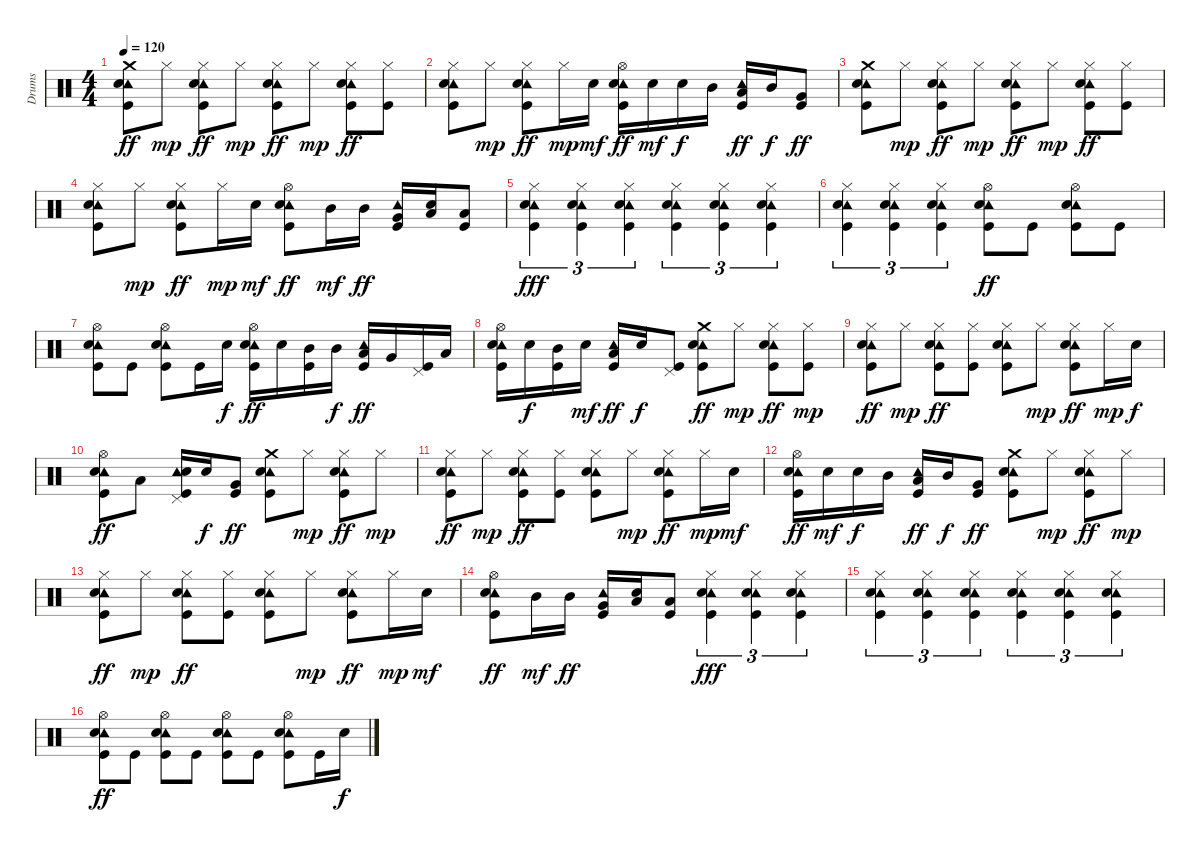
\track ("Drums" "Drums") {instrument percussion}
\staff {score}
\articulation defaults
\ts (4 4)
\tempo 120
\clef neutral
\ks c
("Crash medium (hit)" "Tambourine (hit)" "Snare (hit) 2" "Kick (hit)").8{dy ff} "Hi-Hat (closed)".8{dy mp} ("Hi-Hat (closed)" "Tambourine (hit)" "Snare (hit) 2" "Kick (hit)").8{dy ff} "Hi-Hat (closed)".8{dy mp} ("Hi-Hat (closed)" "Tambourine (hit)" "Snare (hit) 2" "Kick (hit)").8{dy ff} "Hi-Hat (closed)".8{dy mp} ("Hi-Hat (closed)" "Tambourine (hit)" "Snare (hit) 2" "Kick (hit)").8{dy ff} ("Hi-Hat (closed)" "Kick (hit)").8 |
("Hi-Hat (closed)" "Tambourine (hit)" "Snare (hit) 2" "Kick (hit)").8 "Hi-Hat (closed)".8{dy mp} ("Hi-Hat (closed)" "Tambourine (hit)" "Snare (hit) 2" "Kick (hit)").8{dy ff} "Hi-Hat (closed)".16{dy mp} "Snare (hit) 2".16{dy mf} ("Hi-Hat (open)" "Tambourine (hit)" "Snare (hit) 2" "Kick (hit)").16{dy ff} "Snare (hit) 2".16{dy mf} "Snare (hit) 2".16{dy f} "Mid Tom (hit)".16 ("Tambourine (hit)" "Low Tom (hit)" "Kick (hit)").16{dy ff} "Mid Tom (hit)".16{dy f} ("Very Low Tom (hit)" "Kick (hit)").8{dy ff} |
("Crash medium (hit)" "Tambourine (hit)" "Snare (hit) 2" "Kick (hit)").8 "Hi-Hat (closed)".8{dy mp} ("Hi-Hat (closed)" "Tambourine (hit)" "Snare (hit) 2" "Kick (hit)").8{dy ff} "Hi-Hat (closed)".8{dy mp} ("Hi-Hat (closed)" "Tambourine (hit)" "Snare (hit) 2" "Kick (hit)").8{dy ff} "Hi-Hat (closed)".8{dy mp} ("Hi-Hat (closed)" "Tambourine (hit)" "Snare (hit) 2" "Kick (hit)").8{dy ff} ("Hi-Hat (closed)" "Kick (hit)").8 |
("Hi-Hat (closed)" "Tambourine (hit)" "Snare (hit) 2" "Kick (hit)").8 "Hi-Hat (closed)".8{dy mp} ("Hi-Hat (closed)" "Tambourine (hit)" "Snare (hit) 2" "Kick (hit)").8{dy ff} "Hi-Hat (closed)".16{dy mp} "Snare (hit) 2".16{dy mf} ("Hi-Hat (open)" "Tambourine (hit)" "Snare (hit) 2" "Kick (hit)").8{dy ff} "Mid Tom (hit)".16{dy mf} "Mid Tom (hit)".16{dy ff} ("Tambourine (hit)" "Very Low Tom (hit)" "Kick (hit)").16 ("Low Tom (hit)" "Snare (hit) 2").16 ("Low Floor Tom (hit)" "Kick (hit)").8 |
("Hi-Hat (closed)" "Tambourine (hit)" "Snare (hit) 2" "Kick (hit)").4{tu (3 2) dy fff} ("Hi-Hat (closed)" "Tambourine (hit)" "Snare (hit) 2" "Kick (hit)").4{tu (3 2)} ("Hi-Hat (closed)" "Tambourine (hit)" "Snare (hit) 2" "Kick (hit)").4{tu (3 2)} ("Hi-Hat (closed)" "Tambourine (hit)" "Snare (hit) 2" "Kick (hit)").4{tu (3 2)} ("Hi-Hat (closed)" "Tambourine (hit)" "Snare (hit) 2" "Kick (hit)").4{tu (3 2)} ("Hi-Hat (closed)" "Tambourine (hit)" "Snare (hit) 2" "Kick (hit)").4{tu (3 2)} |
("Hi-Hat (closed)" "Tambourine (hit)" "Snare (hit) 2" "Kick (hit)").4{tu (3 2)} ("Hi-Hat (closed)" "Tambourine (hit)" "Snare (hit) 2" "Kick (hit)").4{tu (3 2)} ("Hi-Hat (closed)" "Tambourine (hit)" "Snare (hit) 2" "Kick (hit)").4{tu (3 2)} ("Hi-Hat (open)" "Tambourine (hit)" "Snare (hit) 2" "Kick (hit)").8{dy ff} "Kick (hit)".8 ("Hi-Hat (open)" "Tambourine (hit)" "Snare (hit) 2" "Kick (hit)").8 "Kick (hit)".8 |
("Hi-Hat (open)" "Tambourine (hit)" "Snare (hit) 2" "Kick (hit)").8 "Kick (hit)".8 ("Hi-Hat (open)" "Tambourine (hit)" "Snare (hit) 2" "Kick (hit)").8 "Kick (hit)".16 "Snare (hit) 2".16{dy f} ("Hi-Hat (open)" "Tambourine (hit)" "Snare (hit) 2" "Kick (hit)").16{dy ff} "Snare (hit) 2".16 ("Mid Tom (hit)" "Kick (hit)").16 "Mid Tom (hit)".16{dy f} ("Tambourine (hit)" "Low Tom (hit)" "Kick (hit)").16{dy ff} "Very Low Tom (hit)".16 ("Pedal Hi-Hat (hit)" "Kick (hit)").16 "Low Floor Tom (hit)".16 |
("Hi-Hat (open)" "Tambourine (hit)" "Snare (hit) 2" "Kick (hit)").16 "Snare (hit) 2".16{dy f} ("Mid Tom (hit)" "Kick (hit)").16 "Snare (hit) 2".16{dy mf} ("Tambourine (hit)" "Low Tom (hit)" "Kick (hit)").16{dy ff} "Snare (hit) 2".16{dy f} ("Pedal Hi-Hat (hit)" "Kick (hit)").8 ("Crash medium (hit)" "Tambourine (hit)" "Snare (hit) 2" "Kick (hit)").8{dy ff} "Hi-Hat (closed)".8{dy mp} ("Hi-Hat (closed)" "Tambourine (hit)" "Snare (hit) 2" "Kick (hit)").8{dy ff} ("Hi-Hat (closed)" "Kick (hit)").8{dy mp} |
("Hi-Hat (closed)" "Tambourine (hit)" "Snare (hit) 2" "Kick (hit)").8{dy ff} "Hi-Hat (closed)".8{dy mp} ("Hi-Hat (closed)" "Tambourine (hit)" "Snare (hit) 2" "Kick (hit)").8{dy ff} ("Hi-Hat (closed)" "Kick (hit)").8 ("Hi-Hat (closed)" "Tambourine (hit)" "Snare (hit) 2" "Kick (hit)").8 "Hi-Hat (closed)".8{dy mp} ("Hi-Hat (closed)" "Tambourine (hit)" "Snare (hit) 2" "Kick (hit)").8{dy ff} "Hi-Hat (closed)".16{dy mp} "Snare (hit) 2".16{dy f} |
("Hi-Hat (open)" "Tambourine (hit)" "Snare (hit) 2" "Kick (hit)").8{dy ff} "Low Tom (hit)".8 ("Pedal Hi-Hat (hit)" "Tambourine (hit)" "Snare (hit) 2" "Kick (hit)").16 "Snare (hit) 2".16{dy f} ("Very Low Tom (hit)" "Kick (hit)").8{dy ff} ("Crash medium (hit)" "Tambourine (hit)" "Snare (hit) 2" "Kick (hit)").8 "Hi-Hat (closed)".8{dy mp} ("Hi-Hat (closed)" "Tambourine (hit)" "Snare (hit) 2" "Kick (hit)").8{dy ff} "Hi-Hat (closed)".8{dy mp} |
("Hi-Hat (closed)" "Tambourine (hit)" "Snare (hit) 2" "Kick (hit)").8{dy ff} "Hi-Hat (closed)".8{dy mp} ("Hi-Hat (closed)" "Tambourine (hit)" "Snare (hit) 2" "Kick (hit)").8{dy ff} ("Hi-Hat (closed)" "Kick (hit)").8 ("Hi-Hat (closed)" "Tambourine (hit)" "Snare (hit) 2" "Kick (hit)").8 "Hi-Hat (closed)".8{dy mp} ("Hi-Hat (closed)" "Tambourine (hit)" "Snare (hit) 2" "Kick (hit)").8{dy ff} "Hi-Hat (closed)".16{dy mp} "Snare (hit) 2".16{dy mf} |
("Hi-Hat (open)" "Tambourine (hit)" "Snare (hit) 2" "Kick (hit)").16{dy ff} "Snare (hit) 2".16{dy mf} "Snare (hit) 2".16{dy f} "Mid Tom (hit)".16 ("Tambourine (hit)" "Low Tom (hit)" "Kick (hit)").16{dy ff} "Mid Tom (hit)".16{dy f} ("Very Low Tom (hit)" "Kick (hit)").8{dy ff} ("Crash medium (hit)" "Tambourine (hit)" "Snare (hit) 2" "Kick (hit)").8 "Hi-Hat (closed)".8{dy mp} ("Hi-Hat (closed)" "Tambourine (hit)" "Snare (hit) 2" "Kick (hit)").8{dy ff} "Hi-Hat (closed)".8{dy mp} |
("Hi-Hat (closed)" "Tambourine (hit)" "Snare (hit) 2" "Kick (hit)").8{dy ff} "Hi-Hat (closed)".8{dy mp} ("Hi-Hat (closed)" "Tambourine (hit)" "Snare (hit) 2" "Kick (hit)").8{dy ff} ("Hi-Hat (closed)" "Kick (hit)").8 ("Hi-Hat (closed)" "Tambourine (hit)" "Snare (hit) 2" "Kick (hit)").8 "Hi-Hat (closed)".8{dy mp} ("Hi-Hat (closed)" "Tambourine (hit)" "Snare (hit) 2" "Kick (hit)").8{dy ff} "Hi-Hat (closed)".16{dy mp} "Snare (hit) 2".16{dy mf} |
("Hi-Hat (open)" "Tambourine (hit)" "Snare (hit) 2" "Kick (hit)").8{dy ff} "Mid Tom (hit)".16{dy mf} "Mid Tom (hit)".16{dy ff} ("Tambourine (hit)" "Very Low Tom (hit)" "Kick (hit)").16 ("Low Tom (hit)" "Snare (hit) 2").16 ("Low Floor Tom (hit)" "Kick (hit)").8 ("Hi-Hat (closed)" "Tambourine (hit)" "Snare (hit) 2" "Kick (hit)").4{tu (3 2) dy fff} ("Hi-Hat (closed)" "Tambourine (hit)" "Snare (hit) 2" "Kick (hit)").4{tu (3 2)} ("Hi-Hat (closed)" "Tambourine (hit)" "Snare (hit) 2" "Kick (hit)").4{tu (3 2)} |
("Hi-Hat (closed)" "Tambourine (hit)" "Snare (hit) 2" "Kick (hit)").4{tu (3 2)} ("Hi-Hat (closed)" "Tambourine (hit)" "Snare (hit) 2" "Kick (hit)").4{tu (3 2)} ("Hi-Hat (closed)" "Tambourine (hit)" "Snare (hit) 2" "Kick (hit)").4{tu (3 2)} ("Hi-Hat (closed)" "Tambourine (hit)" "Snare (hit) 2" "Kick (hit)").4{tu (3 2)} ("Hi-Hat (closed)" "Tambourine (hit)" "Snare (hit) 2" "Kick (hit)").4{tu (3 2)} ("Hi-Hat (closed)" "Tambourine (hit)" "Snare (hit) 2" "Kick (hit)").4{tu (3 2)} |
("Hi-Hat (open)" "Tambourine (hit)" "Snare (hit) 2" "Kick (hit)").8{dy ff} "Kick (hit)".8 ("Hi-Hat (open)" "Tambourine (hit)" "Snare (hit) 2" "Kick (hit)").8 "Kick (hit)".8 ("Hi-Hat (open)" "Tambourine (hit)" "Snare (hit) 2" "Kick (hit)").8 "Kick (hit)".8 ("Hi-Hat (open)" "Tambourine (hit)" "Snare (hit) 2" "Kick (hit)").8 "Kick (hit)".16 "Snare (hit) 2".16{dy f}
